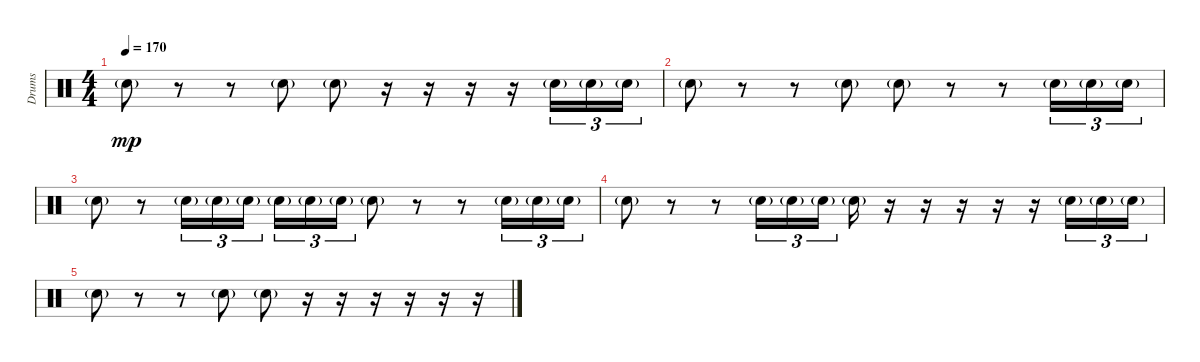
\track ("Drums" "Drums") {instrument percussion}
\staff {score}
\articulation defaults
\ts (4 4)
\tempo 170
\clef neutral
\ks c "Electric Snare (hit)"{g}.8{dy mp}
r.8 r.8 "Electric Snare (hit)"{g}.8 "Electric Snare (hit)"{g}.8 r.16 r.16 r.16 r.16 "Electric Snare (hit)"{g}.16{tu (3 2)} "Electric Snare (hit)"{g}.16{tu (3 2)} "Electric Snare (hit)"{g}.16{tu (3 2)} |
"Electric Snare (hit)"{g}.8 r.8 r.8 "Electric Snare (hit)"{g}.8 "Electric Snare (hit)"{g}.8 r.8 r.8 "Electric Snare (hit)"{g}.16{tu (3 2)} "Electric Snare (hit)"{g}.16{tu (3 2)} "Electric Snare (hit)"{g}.16{tu (3 2)} |
"Electric Snare (hit)"{g}.8 r.8 "Electric Snare (hit)"{g}.16{tu (3 2)} "Electric Snare (hit)"{g}.16{tu (3 2)} "Electric Snare (hit)"{g}.16{tu (3 2) beam splitsecondary} "Electric Snare (hit)"{g}.16{tu (3 2)} "Electric Snare (hit)"{g}.16{tu (3 2)} "Electric Snare (hit)"{g}.16{tu (3 2)} "Electric Snare (hit)"{g}.8 r.8 r.8 "Electric Snare (hit)"{g}.16{tu (3 2)} "Electric Snare (hit)"{g}.16{tu (3 2)} "Electric Snare (hit)"{g}.16{tu (3 2)} |
"Electric Snare (hit)"{g}.8 r.8 r.8 "Electric Snare (hit)"{g}.16{tu (3 2)} "Electric Snare (hit)"{g}.16{tu (3 2)} "Electric Snare (hit)"{g}.16{tu (3 2)} "Electric Snare (hit)"{g}.16 r.16 r.16 r.16 r.16 r.16 "Electric Snare (hit)"{g}.16{tu (3 2)} "Electric Snare (hit)"{g}.16{tu (3 2)} "Electric Snare (hit)"{g}.16{tu (3 2)} |
"Electric Snare (hit)"{g}.8 r.8 r.8 "Electric Snare (hit)"{g}.8 "Electric Snare (hit)"{g}.8 r.16 r.16 r.16 r.16 r.16 r.16
